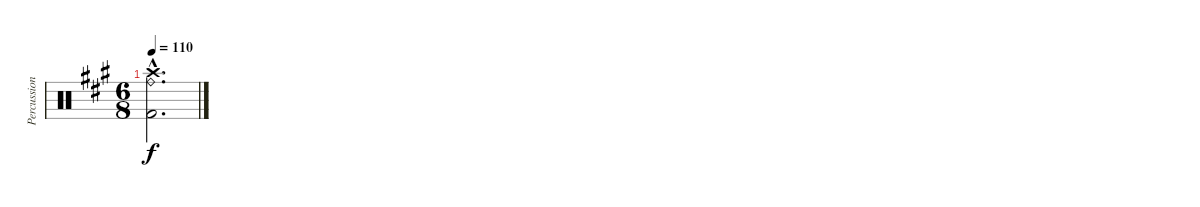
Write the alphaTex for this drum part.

\track ("Percussions" "Percussion") {instrument percussion}
\staff {score}
\articulation defaults
\ts (6 8)
\tempo 110
\clef neutral
\ks a
("Ride (bell)"{hac} "Crash high (hit)"{hac} "Kick (hit) 2"{hac}).2{d dy f}
